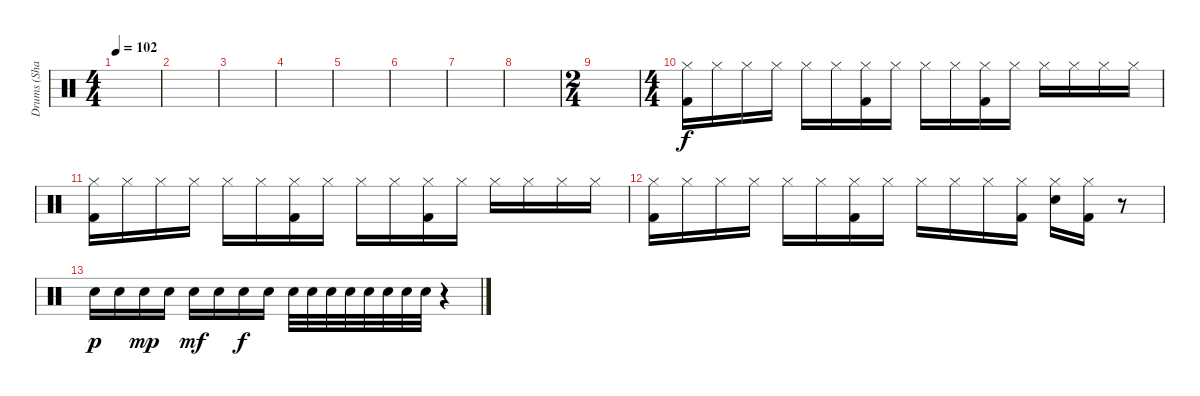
\track ("Drums (Shannon Larkin)" "Drums (Sha") {instrument percussion}
\staff {score}
\articulation defaults
\ts (4 4)
\tempo 102
\clef neutral
\ks c
|
|
|
|
|
|
|
|
\ts (2 4)
|
\ts (4 4)
("Hi-Hat (closed)" "Kick (hit) 2").16 "Hi-Hat (closed)".16 "Hi-Hat (closed)".16 "Hi-Hat (closed)".16 "Hi-Hat (closed)".16 "Hi-Hat (closed)".16 ("Hi-Hat (closed)" "Kick (hit) 2").16 "Hi-Hat (closed)".16 "Hi-Hat (closed)".16 "Hi-Hat (closed)".16 ("Hi-Hat (closed)" "Kick (hit) 2").16 "Hi-Hat (closed)".16 "Hi-Hat (closed)".16 "Hi-Hat (closed)".16 "Hi-Hat (closed)".16 "Hi-Hat (closed)".16 |
("Hi-Hat (closed)" "Kick (hit) 2").16 "Hi-Hat (closed)".16 "Hi-Hat (closed)".16 "Hi-Hat (closed)".16 "Hi-Hat (closed)".16 "Hi-Hat (closed)".16 ("Hi-Hat (closed)" "Kick (hit) 2").16 "Hi-Hat (closed)".16 "Hi-Hat (closed)".16 "Hi-Hat (closed)".16 ("Hi-Hat (closed)" "Kick (hit) 2").16 "Hi-Hat (closed)".16 "Hi-Hat (closed)".16 "Hi-Hat (closed)".16 "Hi-Hat (closed)".16 "Hi-Hat (closed)".16 |
("Hi-Hat (closed)" "Kick (hit) 2").16 "Hi-Hat (closed)".16 "Hi-Hat (closed)".16 "Hi-Hat (closed)".16 "Hi-Hat (closed)".16 "Hi-Hat (closed)".16 ("Hi-Hat (closed)" "Kick (hit) 2").16 "Hi-Hat (closed)".16 "Hi-Hat (closed)".16 "Hi-Hat (closed)".16 "Hi-Hat (closed)".16 ("Hi-Hat (closed)" "Kick (hit) 2").16 ("Hi-Hat (closed)" "Electric Snare (hit)").16 ("Hi-Hat (closed)" "Kick (hit) 2").16 r.8 |
"Electric Snare (hit)".16{dy p} "Electric Snare (hit)".16 "Electric Snare (hit)".16{dy mp} "Electric Snare (hit)".16 "Electric Snare (hit)".16{dy mf} "Electric Snare (hit)".16 "Electric Snare (hit)".16{dy f} "Electric Snare (hit)".16 "Electric Snare (hit)".32 "Electric Snare (hit)".32 "Electric Snare (hit)".32 "Electric Snare (hit)".32 "Electric Snare (hit)".32 "Electric Snare (hit)".32 "Electric Snare (hit)".32 "Electric Snare (hit)".32 r.4
